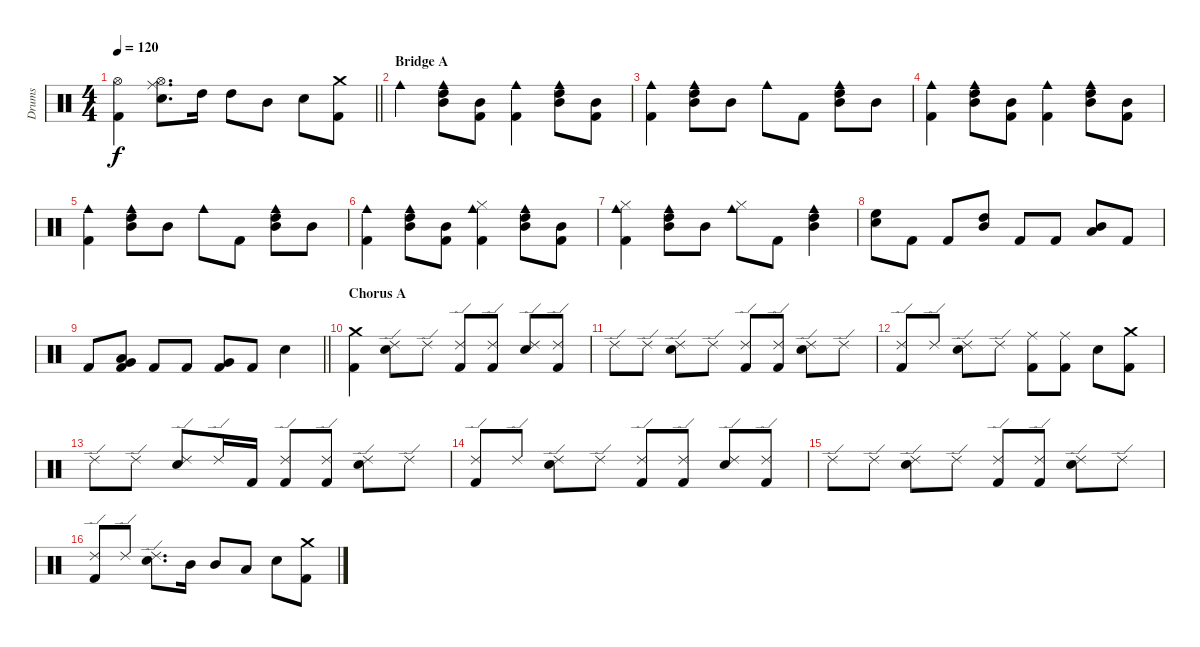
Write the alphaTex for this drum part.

\track ("Drums" "Drums") {instrument percussion}
\staff {score}
\articulation defaults
\ts (4 4)
\tempo 120
\clef neutral
\barLineRight lightlight
\ks c
("Hi-Hat (open)" "Kick (hit) 2").4{dy f} ("Ride (middle)" "Hi-Hat (open)" "Electric Snare (hit)").8{d} "High Tom (hit)".16 "High Tom (hit)".8 "Mid Tom (hit)".8 "Electric Snare (hit)".8 ("Crash medium (hit)" "Kick (hit) 2").8 |
\section ("" "Bridge A")
"Cowbell medium (hit)".4 ("High Tom (hit)" "Mid Tom (hit)" "Cowbell medium (hit)").8 ("Mid Tom (hit)" "Kick (hit) 2").8 ("Cowbell medium (hit)" "Kick (hit) 2").4 ("High Tom (hit)" "Mid Tom (hit)" "Cowbell medium (hit)").8 ("Mid Tom (hit)" "Kick (hit) 2").8 |
("Cowbell medium (hit)" "Kick (hit) 2").4 ("High Tom (hit)" "Mid Tom (hit)" "Cowbell medium (hit)").8 "Mid Tom (hit)".8 "Cowbell medium (hit)".8 "Kick (hit) 2".8 ("High Tom (hit)" "Mid Tom (hit)" "Cowbell medium (hit)").8 "Mid Tom (hit)".8 |
("Cowbell medium (hit)" "Kick (hit) 2").4 ("High Tom (hit)" "Mid Tom (hit)" "Cowbell medium (hit)").8 ("Mid Tom (hit)" "Kick (hit) 2").8 ("Cowbell medium (hit)" "Kick (hit) 2").4 ("High Tom (hit)" "Mid Tom (hit)" "Cowbell medium (hit)").8 ("Mid Tom (hit)" "Kick (hit) 2").8 |
("Cowbell medium (hit)" "Kick (hit) 2").4 ("High Tom (hit)" "Mid Tom (hit)" "Cowbell medium (hit)").8 "Mid Tom (hit)".8 "Cowbell medium (hit)".8 "Kick (hit) 2".8 ("High Tom (hit)" "Mid Tom (hit)" "Cowbell medium (hit)").8 "Mid Tom (hit)".8 |
("Cowbell medium (hit)" "Kick (hit) 2").4 ("High Tom (hit)" "Mid Tom (hit)" "Cowbell medium (hit)").8 ("Mid Tom (hit)" "Kick (hit) 2").8 ("Hi-Hat (closed)" "Cowbell medium (hit)" "Kick (hit) 2").4 ("High Tom (hit)" "Mid Tom (hit)" "Cowbell medium (hit)").8 ("Mid Tom (hit)" "Kick (hit) 2").8 |
("Hi-Hat (closed)" "Cowbell medium (hit)" "Kick (hit) 2").4 ("High Tom (hit)" "Mid Tom (hit)" "Cowbell medium (hit)").8 "Mid Tom (hit)".8 ("Hi-Hat (closed)" "Cowbell medium (hit)").8 "Kick (hit) 2".8 ("High Tom (hit)" "Mid Tom (hit)" "Cowbell medium (hit)").4 |
("High Floor Tom (hit)" "Electric Snare (hit)").8 "Kick (hit) 2".8 "Kick (hit) 2".8 ("High Tom (hit)" "Mid Tom (hit)").8 "Kick (hit) 2".8 "Kick (hit) 2".8 ("Mid Tom (hit)" "Low Tom (hit)").8 "Kick (hit) 2".8 |
\barLineRight lightlight "Kick (hit) 2".8
("Low Tom (hit)" "Very Low Tom (hit)" "Kick (hit) 2").8 "Kick (hit) 2".8 "Kick (hit) 2".8 ("Very Low Tom (hit)" "Kick (hit) 2").8 "Kick (hit) 2".8 "Electric Snare (hit)".4 |
\section ("" "Chorus A")
("Crash medium (hit)" "Kick (hit) 2").4 ("Ride (edge) 2" "Electric Snare (hit)").8 "Ride (edge) 2".8 ("Ride (edge) 2" "Kick (hit) 2").8 ("Ride (edge) 2" "Kick (hit) 2").8 ("Ride (edge) 2" "Electric Snare (hit)").8 ("Ride (edge) 2" "Kick (hit) 2").8 |
"Ride (edge) 2".8 "Ride (edge) 2".8 ("Ride (edge) 2" "Electric Snare (hit)").8 "Ride (edge) 2".8 ("Ride (edge) 2" "Kick (hit) 2").8 ("Ride (edge) 2" "Kick (hit) 2").8 ("Ride (edge) 2" "Electric Snare (hit)").8 "Ride (edge) 2".8 |
("Ride (edge) 2" "Kick (hit) 2").8 "Ride (edge) 2".8 ("Ride (edge) 2" "Electric Snare (hit)").8 "Ride (edge) 2".8 ("Ride (middle)" "Kick (hit) 2").8 ("Ride (middle)" "Kick (hit) 2").8 "Electric Snare (hit)".8 ("Crash medium (hit)" "Kick (hit) 2").8 |
"Ride (edge) 2".8 "Ride (edge) 2".8 ("Ride (edge) 2" "Electric Snare (hit)").8 "Ride (edge) 2".16 "Kick (hit) 2".16 ("Ride (edge) 2" "Kick (hit) 2").8 ("Ride (edge) 2" "Kick (hit) 2").8 ("Ride (edge) 2" "Electric Snare (hit)").8 "Ride (edge) 2".8 |
("Ride (edge) 2" "Kick (hit) 2").8 "Ride (edge) 2".8 ("Ride (edge) 2" "Electric Snare (hit)").8 "Ride (edge) 2".8 ("Ride (edge) 2" "Kick (hit) 2").8 ("Ride (edge) 2" "Kick (hit) 2").8 ("Ride (edge) 2" "Electric Snare (hit)").8 ("Ride (edge) 2" "Kick (hit) 2").8 |
"Ride (edge) 2".8 "Ride (edge) 2".8 ("Ride (edge) 2" "Electric Snare (hit)").8 "Ride (edge) 2".8 ("Ride (edge) 2" "Kick (hit) 2").8 ("Ride (edge) 2" "Kick (hit) 2").8 ("Ride (edge) 2" "Electric Snare (hit)").8 "Ride (edge) 2".8 |
("Ride (edge) 2" "Kick (hit) 2").8 "Ride (edge) 2".8 ("Ride (edge) 2" "Electric Snare (hit)").8{d} "Mid Tom (hit)".16 "Mid Tom (hit)".8 "Low Tom (hit)".8 "Electric Snare (hit)".8 ("Crash medium (hit)" "Kick (hit) 2").8
